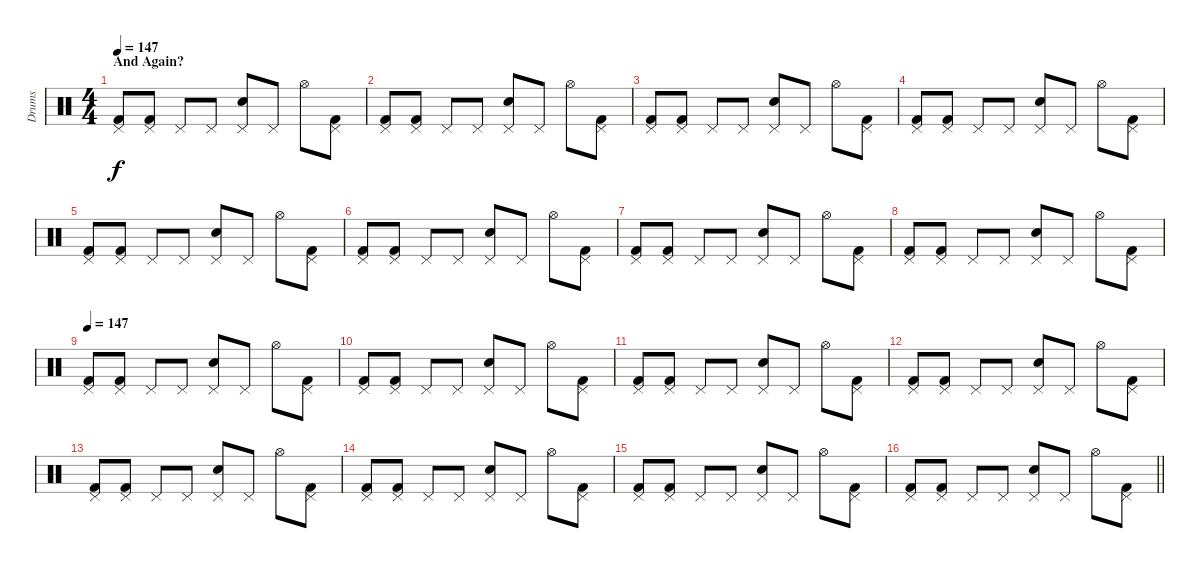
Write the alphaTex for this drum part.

\track ("Drums" "Drums") {instrument percussion}
\staff {score}
\articulation defaults
\ts (4 4)
\section ("" "And Again?")
\tempo 147
\clef neutral
\ks c
("Pedal Hi-Hat (hit)" "Kick (hit) 2").8{dy f} ("Pedal Hi-Hat (hit)" "Kick (hit) 2").8 "Pedal Hi-Hat (hit)".8 "Pedal Hi-Hat (hit)".8 ("Pedal Hi-Hat (hit)" "Electric Snare (hit)").8 "Pedal Hi-Hat (hit)".8 "Hi-Hat (open)".8 ("Pedal Hi-Hat (hit)" "Kick (hit) 2").8 |
("Pedal Hi-Hat (hit)" "Kick (hit) 2").8 ("Pedal Hi-Hat (hit)" "Kick (hit) 2").8 "Pedal Hi-Hat (hit)".8 "Pedal Hi-Hat (hit)".8 ("Pedal Hi-Hat (hit)" "Electric Snare (hit)").8 "Pedal Hi-Hat (hit)".8 "Hi-Hat (open)".8 ("Pedal Hi-Hat (hit)" "Kick (hit) 2").8 |
("Pedal Hi-Hat (hit)" "Kick (hit) 2").8 ("Pedal Hi-Hat (hit)" "Kick (hit) 2").8 "Pedal Hi-Hat (hit)".8 "Pedal Hi-Hat (hit)".8 ("Pedal Hi-Hat (hit)" "Electric Snare (hit)").8 "Pedal Hi-Hat (hit)".8 "Hi-Hat (open)".8 ("Pedal Hi-Hat (hit)" "Kick (hit) 2").8 |
("Pedal Hi-Hat (hit)" "Kick (hit) 2").8 ("Pedal Hi-Hat (hit)" "Kick (hit) 2").8 "Pedal Hi-Hat (hit)".8 "Pedal Hi-Hat (hit)".8 ("Pedal Hi-Hat (hit)" "Electric Snare (hit)").8 "Pedal Hi-Hat (hit)".8 "Hi-Hat (open)".8 ("Pedal Hi-Hat (hit)" "Kick (hit) 2").8 |
("Pedal Hi-Hat (hit)" "Kick (hit) 2").8 ("Pedal Hi-Hat (hit)" "Kick (hit) 2").8 "Pedal Hi-Hat (hit)".8 "Pedal Hi-Hat (hit)".8 ("Pedal Hi-Hat (hit)" "Electric Snare (hit)").8 "Pedal Hi-Hat (hit)".8 "Hi-Hat (open)".8 ("Pedal Hi-Hat (hit)" "Kick (hit) 2").8 |
("Pedal Hi-Hat (hit)" "Kick (hit) 2").8 ("Pedal Hi-Hat (hit)" "Kick (hit) 2").8 "Pedal Hi-Hat (hit)".8 "Pedal Hi-Hat (hit)".8 ("Pedal Hi-Hat (hit)" "Electric Snare (hit)").8 "Pedal Hi-Hat (hit)".8 "Hi-Hat (open)".8 ("Pedal Hi-Hat (hit)" "Kick (hit) 2").8 |
("Pedal Hi-Hat (hit)" "Kick (hit) 2").8 ("Pedal Hi-Hat (hit)" "Kick (hit) 2").8 "Pedal Hi-Hat (hit)".8 "Pedal Hi-Hat (hit)".8 ("Pedal Hi-Hat (hit)" "Electric Snare (hit)").8 "Pedal Hi-Hat (hit)".8 "Hi-Hat (open)".8 ("Pedal Hi-Hat (hit)" "Kick (hit) 2").8 |
("Pedal Hi-Hat (hit)" "Kick (hit) 2").8 ("Pedal Hi-Hat (hit)" "Kick (hit) 2").8 "Pedal Hi-Hat (hit)".8 "Pedal Hi-Hat (hit)".8 ("Pedal Hi-Hat (hit)" "Electric Snare (hit)").8 "Pedal Hi-Hat (hit)".8 "Hi-Hat (open)".8 ("Pedal Hi-Hat (hit)" "Kick (hit) 2").8 |
\tempo 147
("Pedal Hi-Hat (hit)" "Kick (hit) 2").8 ("Pedal Hi-Hat (hit)" "Kick (hit) 2").8 "Pedal Hi-Hat (hit)".8 "Pedal Hi-Hat (hit)".8 ("Pedal Hi-Hat (hit)" "Electric Snare (hit)").8 "Pedal Hi-Hat (hit)".8 "Hi-Hat (open)".8 ("Pedal Hi-Hat (hit)" "Kick (hit) 2").8 |
("Pedal Hi-Hat (hit)" "Kick (hit) 2").8 ("Pedal Hi-Hat (hit)" "Kick (hit) 2").8 "Pedal Hi-Hat (hit)".8 "Pedal Hi-Hat (hit)".8 ("Pedal Hi-Hat (hit)" "Electric Snare (hit)").8 "Pedal Hi-Hat (hit)".8 "Hi-Hat (open)".8 ("Pedal Hi-Hat (hit)" "Kick (hit) 2").8 |
("Pedal Hi-Hat (hit)" "Kick (hit) 2").8 ("Pedal Hi-Hat (hit)" "Kick (hit) 2").8 "Pedal Hi-Hat (hit)".8 "Pedal Hi-Hat (hit)".8 ("Pedal Hi-Hat (hit)" "Electric Snare (hit)").8 "Pedal Hi-Hat (hit)".8 "Hi-Hat (open)".8 ("Pedal Hi-Hat (hit)" "Kick (hit) 2").8 |
("Pedal Hi-Hat (hit)" "Kick (hit) 2").8 ("Pedal Hi-Hat (hit)" "Kick (hit) 2").8 "Pedal Hi-Hat (hit)".8 "Pedal Hi-Hat (hit)".8 ("Pedal Hi-Hat (hit)" "Electric Snare (hit)").8 "Pedal Hi-Hat (hit)".8 "Hi-Hat (open)".8 ("Pedal Hi-Hat (hit)" "Kick (hit) 2").8 |
("Pedal Hi-Hat (hit)" "Kick (hit) 2").8 ("Pedal Hi-Hat (hit)" "Kick (hit) 2").8 "Pedal Hi-Hat (hit)".8 "Pedal Hi-Hat (hit)".8 ("Pedal Hi-Hat (hit)" "Electric Snare (hit)").8 "Pedal Hi-Hat (hit)".8 "Hi-Hat (open)".8 ("Pedal Hi-Hat (hit)" "Kick (hit) 2").8 |
("Pedal Hi-Hat (hit)" "Kick (hit) 2").8 ("Pedal Hi-Hat (hit)" "Kick (hit) 2").8 "Pedal Hi-Hat (hit)".8 "Pedal Hi-Hat (hit)".8 ("Pedal Hi-Hat (hit)" "Electric Snare (hit)").8 "Pedal Hi-Hat (hit)".8 "Hi-Hat (open)".8 ("Pedal Hi-Hat (hit)" "Kick (hit) 2").8 |
("Pedal Hi-Hat (hit)" "Kick (hit) 2").8 ("Pedal Hi-Hat (hit)" "Kick (hit) 2").8 "Pedal Hi-Hat (hit)".8 "Pedal Hi-Hat (hit)".8 ("Pedal Hi-Hat (hit)" "Electric Snare (hit)").8 "Pedal Hi-Hat (hit)".8 "Hi-Hat (open)".8 ("Pedal Hi-Hat (hit)" "Kick (hit) 2").8 |
\barLineRight lightlight
("Pedal Hi-Hat (hit)" "Kick (hit) 2").8 ("Pedal Hi-Hat (hit)" "Kick (hit) 2").8 "Pedal Hi-Hat (hit)".8 "Pedal Hi-Hat (hit)".8 ("Pedal Hi-Hat (hit)" "Electric Snare (hit)").8 "Pedal Hi-Hat (hit)".8 "Hi-Hat (open)".8 ("Pedal Hi-Hat (hit)" "Kick (hit) 2").8
